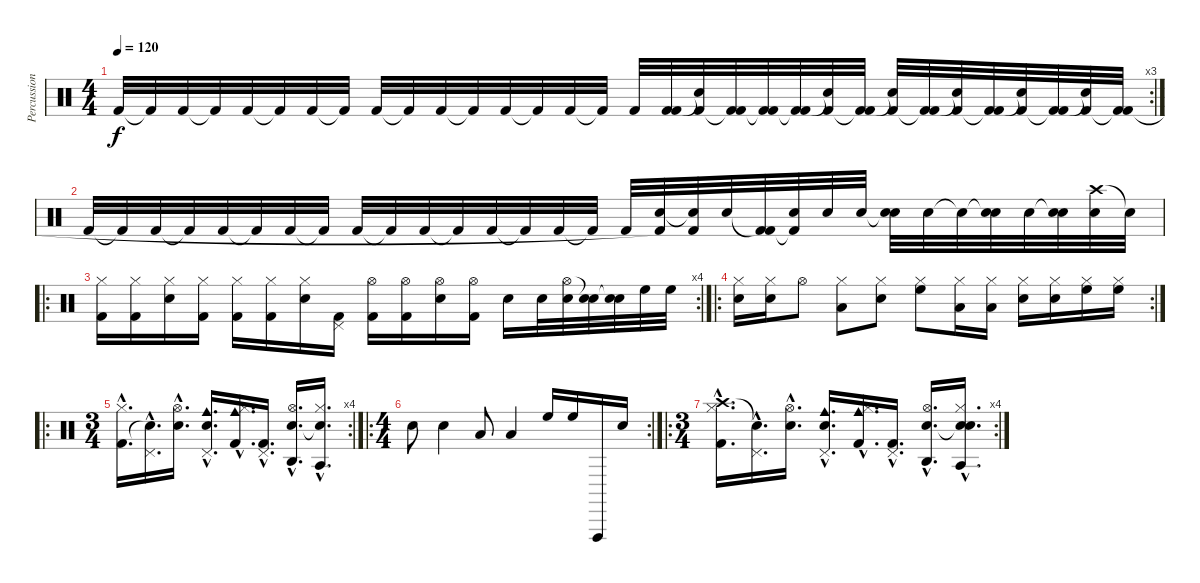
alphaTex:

\track ("Percussion" "Percussion") {instrument percussion}
\staff {score}
\articulation defaults
\rc 3
\ts (4 4)
\tempo 120
\clef neutral
\ks c "Kick (hit) 2".32{dy f} "Kick (hit) 2"{t}.32 "Kick (hit) 2".32 "Kick (hit) 2"{t}.32 "Kick (hit) 2".32 "Kick (hit) 2"{t}.32 "Kick (hit) 2".32 "Kick (hit) 2"{t}.32 "Kick (hit) 2".32 "Kick (hit) 2"{t}.32 "Kick (hit) 2".32 "Kick (hit) 2"{t}.32 "Kick (hit) 2".32 "Kick (hit) 2"{t}.32 "Kick (hit) 2".32 "Kick (hit) 2"{t}.32 "Kick (hit) 2".32
("Kick (hit) 2" "Kick (hit) 2").32 ("Snare (hit)"{t} "Kick (hit) 2").32 ("Kick (hit) 2" "Kick (hit) 2"{t}).32 ("Kick (hit) 2"{t} "Kick (hit) 2").32 ("Kick (hit) 2" "Kick (hit) 2"{t}).32 ("Snare (hit)"{t} "Kick (hit) 2").32 ("Kick (hit) 2" "Kick (hit) 2"{t}).32 ("Snare (hit)"{t} "Kick (hit) 2").32 ("Kick (hit) 2" "Kick (hit) 2"{t}).32 ("Snare (hit)"{t} "Kick (hit) 2").32 ("Kick (hit) 2" "Kick (hit) 2"{t}).32 ("Snare (hit)"{t} "Kick (hit) 2").32 ("Kick (hit) 2" "Kick (hit) 2"{t}).32 ("Snare (hit)"{t} "Kick (hit) 2").32 ("Kick (hit) 2" "Kick (hit) 2"{t}).32 |
"Kick (hit) 2".32 "Kick (hit) 2"{t}.32 "Kick (hit) 2".32 "Kick (hit) 2"{t}.32 "Kick (hit) 2".32 "Kick (hit) 2"{t}.32 "Kick (hit) 2".32 "Kick (hit) 2"{t}.32 "Kick (hit) 2".32 "Kick (hit) 2"{t}.32 "Kick (hit) 2".32 "Kick (hit) 2"{t}.32 "Kick (hit) 2".32 "Kick (hit) 2"{t}.32 "Kick (hit) 2".32 "Kick (hit) 2"{t}.32 "Kick (hit) 2".32 ("Snare (hit) 2" "Kick (hit) 2"{t}).32 ("Snare (hit)"{t} "Kick (hit) 2").32 "Snare (hit) 2".32 ("Kick (hit) 2"{t} "Kick (hit) 2").32 ("Snare (hit) 2" "Kick (hit) 2"{t}).32 "Snare (hit) 2".32 "Snare (hit) 2".32 ("Snare (hit)"{t} "Snare (hit) 2").32 "Snare (hit) 2".32 "Snare (hit)"{t}.32 ("Snare (hit)"{t} "Snare (hit) 2").32 "Snare (hit) 2".32 ("Snare (hit)"{t} "Snare (hit) 2").32 ("Crash high (hit)" "Snare (hit) 2").32 "Snare (hit)"{t}.32 |
\ro
\rc 4
("Hi-Hat (closed)" "Kick (hit) 2").16 ("Hi-Hat (closed)" "Kick (hit) 2").16 ("Hi-Hat (closed)" "Snare (hit) 2").16 ("Hi-Hat (closed)" "Kick (hit) 2").16 ("Hi-Hat (closed)" "Kick (hit) 2").16 ("Hi-Hat (closed)" "Kick (hit) 2").16 ("Hi-Hat (closed)" "Snare (hit) 2").16 ("Pedal Hi-Hat (hit)" "Kick (hit) 2").16 ("Hi-Hat (open)" "Kick (hit) 2").16 ("Hi-Hat (open)" "Kick (hit) 2").16 ("Hi-Hat (open)" "Snare (hit) 2").16 ("Hi-Hat (open)" "Kick (hit) 2").16 "Snare (hit) 2".16 "Snare (hit) 2".32 ("Hi-Hat (open)" "Snare (hit) 2").32 ("Snare (hit)"{t} "Snare (hit) 2").32 ("Snare (hit)"{t} "Snare (hit) 2").32 "High Floor Tom (hit)".32 "High Floor Tom (hit)".32 |
\ro
\rc 2
("Hi-Hat (closed)" "Snare (hit) 2").16 ("Hi-Hat (closed)" "Snare (hit) 2").16 "Hi-Hat (open)".8 ("Hi-Hat (closed)" "Low Tom (hit)").8 ("Hi-Hat (closed)" "Snare (hit) 2").8 ("Hi-Hat (closed)" "High Floor Tom (hit)").8 ("Hi-Hat (closed)" "Low Tom (hit)").16 ("Hi-Hat (closed)" "Low Tom (hit)").16 ("Hi-Hat (closed)" "Snare (hit) 2").16 ("Hi-Hat (closed)" "Snare (hit) 2").16 ("Hi-Hat (closed)" "High Floor Tom (hit)").16 ("Hi-Hat (closed)" "High Floor Tom (hit)").16 |
\ro
\rc 4
\ts (3 4)
("Hi-Hat (closed)"{hac} "Kick (hit) 2"{hac}).16{d} ("Pedal Hi-Hat (hit)"{hac} "Snare (hit)"{hac t}).16{d} ("Hi-Hat (open)"{hac} "Snare (hit) 2"{hac}).16{d} ("Pedal Hi-Hat (hit)"{hac} "Cowbell medium (hit)"{hac} "Snare (hit) 2"{hac}).16{d} ("Hi-Hat (closed)"{hac} "Cowbell medium (hit)"{hac} "Kick (hit) 2"{hac}).16{d} ("Pedal Hi-Hat (hit)"{hac} "Kick (hit) 2"{hac}).16{d} ("Hi-Hat (open)"{hac} "Agogo high (hit)"{hac} "Snare (hit) 2"{hac}).16{d} ("Hi-Hat (closed)"{hac} "Agogo tow (hit)"{hac} "Snare (hit)"{hac t}).16{d} |
\ro
\rc 2
\ts (4 4)
"Snare (hit) 2".8 "Snare (hit) 2".4 "Low Tom (hit)".8 "Low Tom (hit)".4 "High Floor Tom (hit)".16 "High Floor Tom (hit)".16 "Vibraslap (hit)".16 "Snare (hit) 2".16 |
\ro
\rc 4
\ts (3 4)
("Hi-Hat (closed)"{hac} "Crash high (hit)"{hac} "Kick (hit) 2"{hac}).16{d} ("Pedal Hi-Hat (hit)"{hac} "Snare (hit)"{hac t}).16{d} ("Hi-Hat (open)"{hac} "Snare (hit) 2"{hac}).16{d} ("Pedal Hi-Hat (hit)"{hac} "Cowbell medium (hit)"{hac} "Snare (hit) 2"{hac}).16{d} ("Hi-Hat (closed)"{hac} "Cowbell medium (hit)"{hac} "Kick (hit) 2"{hac}).16{d} ("Pedal Hi-Hat (hit)"{hac} "Kick (hit) 2"{hac}).16{d} ("Hi-Hat (open)"{hac} "Agogo high (hit)"{hac} "Snare (hit) 2"{hac}).16{d} ("Hi-Hat (closed)"{hac} "Agogo tow (hit)"{hac} "Snare (hit)"{hac t} "Snare (hit)"{hac}).16{d}
